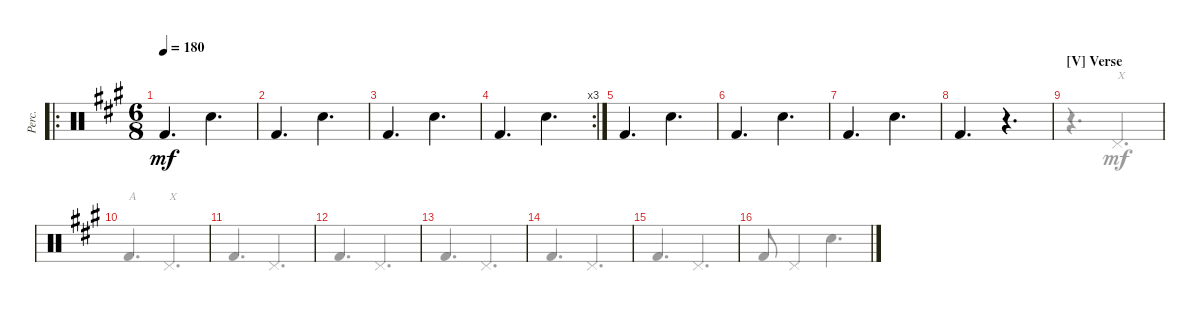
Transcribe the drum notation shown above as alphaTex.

\defaultSystemsLayout 4
\bracketExtendMode groupsimilarinstruments
\otherSystemsTrackNameOrientation horizontal
\track ("Percussions" "Perc.") {instrument percussion}
\staff {score}
\articulation defaults
\voice
\ro
\ts (6 8)
\tempo 180
\clef neutral
\ks f#minor "Kick (hit) 2"{acc forcenatural}.4{d dy mf beam Up} "Snare (hit) 2"{acc forcenatural}.4{d beam Down}
|
"Kick (hit) 2"{acc forcenatural}.4{d beam Up} "Snare (hit) 2"{acc forcenatural}.4{d beam Down} |
"Kick (hit) 2"{acc forcenatural}.4{d beam Up} "Snare (hit) 2"{acc forcenatural}.4{d beam Down} |
\rc 3 "Kick (hit) 2"{acc forcenatural}.4{d beam Up} "Snare (hit) 2"{acc forcenatural}.4{d beam Down}
|
"Kick (hit) 2"{acc forcenatural}.4{d beam Up} "Snare (hit) 2"{acc forcenatural}.4{d beam Down} |
"Kick (hit) 2"{acc forcenatural}.4{d beam Up} "Snare (hit) 2"{acc forcenatural}.4{d beam Down} |
"Kick (hit) 2"{acc forcenatural}.4{d beam Up} "Snare (hit) 2"{acc forcenatural}.4{d beam Down} |
"Kick (hit) 2"{acc forcenatural}.4{d beam Up} r.4{d beam Up} |
\section ("V" "Verse")
|
|
|
|
|
|
|
\voice
\clef neutral
\ottava regular
\simile none
\ks f#minor
|
|
|
|
|
|
|
|
r.4{d beam Down} "Pedal Hi-Hat (hit)"{acc forcenatural}.4{d txt "X" beam Up} |
"Kick (hit) 2"{acc forcenatural}.4{d txt "A" beam Up} "Pedal Hi-Hat (hit)"{acc forcenatural}.4{d txt "X" beam Up} |
"Kick (hit) 2"{acc forcenatural}.4{d beam Up} "Pedal Hi-Hat (hit)"{acc forcenatural}.4{d beam Up} |
"Kick (hit) 2"{acc forcenatural}.4{d beam Up} "Pedal Hi-Hat (hit)"{acc forcenatural}.4{d beam Up} |
"Kick (hit) 2"{acc forcenatural}.4{d beam Up} "Pedal Hi-Hat (hit)"{acc forcenatural}.4{d beam Up} |
"Kick (hit) 2"{acc forcenatural}.4{d beam Up} "Pedal Hi-Hat (hit)"{acc forcenatural}.4{d beam Up} |
"Kick (hit) 2"{acc forcenatural}.4{d beam Up} "Pedal Hi-Hat (hit)"{acc forcenatural}.4{d beam Up} |
"Kick (hit) 2"{acc forcenatural}.8{beam Up} "Pedal Hi-Hat (hit)"{acc forcenatural}.4{beam Up} "Snare (hit) 2"{acc forcenatural}.4{d beam Down}
